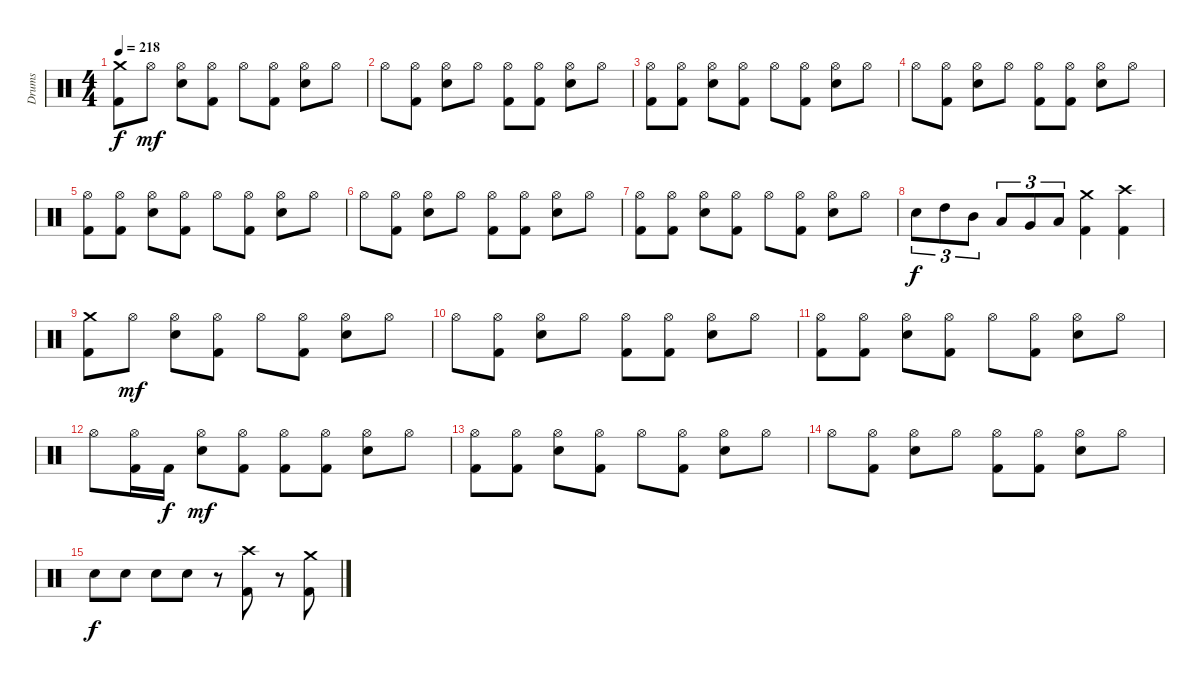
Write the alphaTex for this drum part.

\track ("Drums" "Drums") {instrument percussion}
\staff {score}
\articulation defaults
\ts (4 4)
\tempo 218
\clef neutral
\ks c
("Crash medium (hit)" "Kick (hit) 2").8{dy f} "Hi-Hat (open)".8{dy mf} ("Hi-Hat (open)" "Snare (hit) 2").8 ("Hi-Hat (open)" "Kick (hit) 2").8 "Hi-Hat (open)".8 ("Hi-Hat (open)" "Kick (hit) 2").8 ("Hi-Hat (open)" "Snare (hit) 2").8 "Hi-Hat (open)".8 |
"Hi-Hat (open)".8 ("Hi-Hat (open)" "Kick (hit) 2").8 ("Hi-Hat (open)" "Snare (hit) 2").8 "Hi-Hat (open)".8 ("Hi-Hat (open)" "Kick (hit) 2").8 ("Hi-Hat (open)" "Kick (hit) 2").8 ("Hi-Hat (open)" "Snare (hit) 2").8 "Hi-Hat (open)".8 |
("Hi-Hat (open)" "Kick (hit) 2").8 ("Hi-Hat (open)" "Kick (hit) 2").8 ("Hi-Hat (open)" "Snare (hit) 2").8 ("Hi-Hat (open)" "Kick (hit) 2").8 "Hi-Hat (open)".8 ("Hi-Hat (open)" "Kick (hit) 2").8 ("Hi-Hat (open)" "Snare (hit) 2").8 "Hi-Hat (open)".8 |
"Hi-Hat (open)".8 ("Hi-Hat (open)" "Kick (hit) 2").8 ("Hi-Hat (open)" "Snare (hit) 2").8 "Hi-Hat (open)".8 ("Hi-Hat (open)" "Kick (hit) 2").8 ("Hi-Hat (open)" "Kick (hit) 2").8 ("Hi-Hat (open)" "Snare (hit) 2").8 "Hi-Hat (open)".8 |
("Hi-Hat (open)" "Kick (hit) 2").8 ("Hi-Hat (open)" "Kick (hit) 2").8 ("Hi-Hat (open)" "Snare (hit) 2").8 ("Hi-Hat (open)" "Kick (hit) 2").8 "Hi-Hat (open)".8 ("Hi-Hat (open)" "Kick (hit) 2").8 ("Hi-Hat (open)" "Snare (hit) 2").8 "Hi-Hat (open)".8 |
"Hi-Hat (open)".8 ("Hi-Hat (open)" "Kick (hit) 2").8 ("Hi-Hat (open)" "Snare (hit) 2").8 "Hi-Hat (open)".8 ("Hi-Hat (open)" "Kick (hit) 2").8 ("Hi-Hat (open)" "Kick (hit) 2").8 ("Hi-Hat (open)" "Snare (hit) 2").8 "Hi-Hat (open)".8 |
("Hi-Hat (open)" "Kick (hit) 2").8 ("Hi-Hat (open)" "Kick (hit) 2").8 ("Hi-Hat (open)" "Snare (hit) 2").8 ("Hi-Hat (open)" "Kick (hit) 2").8 "Hi-Hat (open)".8 ("Hi-Hat (open)" "Kick (hit) 2").8 ("Hi-Hat (open)" "Snare (hit) 2").8 "Hi-Hat (open)".8 |
"Snare (hit) 2".8{tu (3 2) dy f} "High Tom (hit)".8{tu (3 2)} "Mid Tom (hit)".8{tu (3 2)} "Low Tom (hit)".8{tu (3 2)} "Very Low Tom (hit)".8{tu (3 2)} "Low Floor Tom (hit)".8{tu (3 2)} ("Crash medium (hit)" "Kick (hit) 2").4 ("Crash high (hit)" "Kick (hit) 2").4 |
("Crash medium (hit)" "Kick (hit) 2").8 "Hi-Hat (open)".8{dy mf} ("Hi-Hat (open)" "Snare (hit) 2").8 ("Hi-Hat (open)" "Kick (hit) 2").8 "Hi-Hat (open)".8 ("Hi-Hat (open)" "Kick (hit) 2").8 ("Hi-Hat (open)" "Snare (hit) 2").8 "Hi-Hat (open)".8 |
"Hi-Hat (open)".8 ("Hi-Hat (open)" "Kick (hit) 2").8 ("Hi-Hat (open)" "Snare (hit) 2").8 "Hi-Hat (open)".8 ("Hi-Hat (open)" "Kick (hit) 2").8 ("Hi-Hat (open)" "Kick (hit) 2").8 ("Hi-Hat (open)" "Snare (hit) 2").8 "Hi-Hat (open)".8 |
("Hi-Hat (open)" "Kick (hit) 2").8 ("Hi-Hat (open)" "Kick (hit) 2").8 ("Hi-Hat (open)" "Snare (hit) 2").8 ("Hi-Hat (open)" "Kick (hit) 2").8 "Hi-Hat (open)".8 ("Hi-Hat (open)" "Kick (hit) 2").8 ("Hi-Hat (open)" "Snare (hit) 2").8 "Hi-Hat (open)".8 |
"Hi-Hat (open)".8 ("Hi-Hat (open)" "Kick (hit) 2").16 "Kick (hit) 2".16{dy f} ("Hi-Hat (open)" "Snare (hit) 2").8{dy mf} ("Hi-Hat (open)" "Kick (hit) 2").8 ("Hi-Hat (open)" "Kick (hit) 2").8 ("Hi-Hat (open)" "Kick (hit) 2").8 ("Hi-Hat (open)" "Snare (hit) 2").8 "Hi-Hat (open)".8 |
("Hi-Hat (open)" "Kick (hit) 2").8 ("Hi-Hat (open)" "Kick (hit) 2").8 ("Hi-Hat (open)" "Snare (hit) 2").8 ("Hi-Hat (open)" "Kick (hit) 2").8 "Hi-Hat (open)".8 ("Hi-Hat (open)" "Kick (hit) 2").8 ("Hi-Hat (open)" "Snare (hit) 2").8 "Hi-Hat (open)".8 |
"Hi-Hat (open)".8 ("Hi-Hat (open)" "Kick (hit) 2").8 ("Hi-Hat (open)" "Snare (hit) 2").8 "Hi-Hat (open)".8 ("Hi-Hat (open)" "Kick (hit) 2").8 ("Hi-Hat (open)" "Kick (hit) 2").8 ("Hi-Hat (open)" "Snare (hit) 2").8 "Hi-Hat (open)".8 |
"Snare (hit) 2".8{dy f} "Snare (hit) 2".8 "Snare (hit) 2".8 "Snare (hit) 2".8 r.8 ("Crash high (hit)" "Kick (hit) 2").8 r.8 ("Crash medium (hit)" "Kick (hit) 2").8
